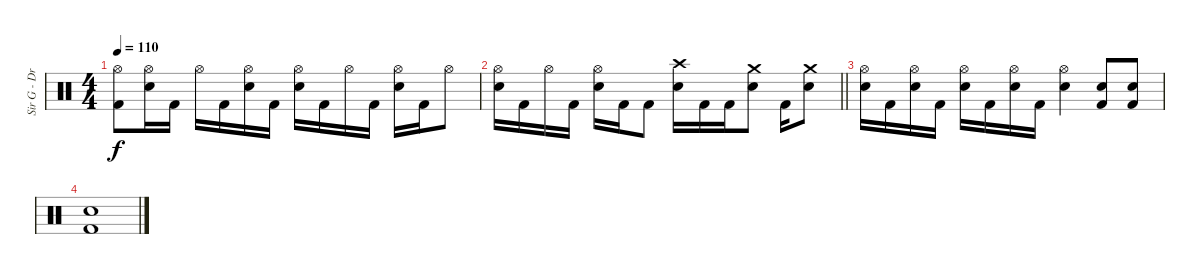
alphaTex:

\track ("Sir G - Drums" "Sir G - Dr") {instrument percussion}
\staff {score}
\articulation defaults
\ts (4 4)
\tempo 110
\clef neutral
\ks c
("Hi-Hat (open)" "Kick (hit) 2").8{dy f} ("Hi-Hat (open)" "Electric Snare (hit)").16 "Kick (hit) 2".16 "Hi-Hat (open)".16 "Kick (hit) 2".16 ("Hi-Hat (open)" "Electric Snare (hit)").16 "Kick (hit) 2".16 ("Hi-Hat (open)" "Electric Snare (hit)").16 "Kick (hit) 2".16 "Hi-Hat (open)".16 "Kick (hit) 2".16 ("Hi-Hat (open)" "Electric Snare (hit)").16 "Kick (hit) 2".16 "Hi-Hat (open)".8 |
\barLineRight lightlight
("Hi-Hat (open)" "Electric Snare (hit)").16 "Kick (hit) 2".16 "Hi-Hat (open)".16 "Kick (hit) 2".16 ("Hi-Hat (open)" "Electric Snare (hit)").16 "Kick (hit) 2".16 "Kick (hit) 2".8 ("Crash high (hit)" "Electric Snare (hit)").16 "Kick (hit) 2".16 "Kick (hit) 2".16 ("Crash medium (hit)" "Electric Snare (hit)").8 "Kick (hit) 2".16 ("Crash medium (hit)" "Electric Snare (hit)").8 |
("Hi-Hat (open)" "Electric Snare (hit)").16 "Kick (hit) 2".16 ("Hi-Hat (open)" "Electric Snare (hit)").16 "Kick (hit) 2".16 ("Hi-Hat (open)" "Electric Snare (hit)").16 "Kick (hit) 2".16 ("Hi-Hat (open)" "Electric Snare (hit)").16 "Kick (hit) 2".16 ("Hi-Hat (open)" "Electric Snare (hit)").4 ("Electric Snare (hit)" "Kick (hit) 2").8 ("Electric Snare (hit)" "Kick (hit) 2").8 |
("Electric Snare (hit)" "Kick (hit) 2").1
